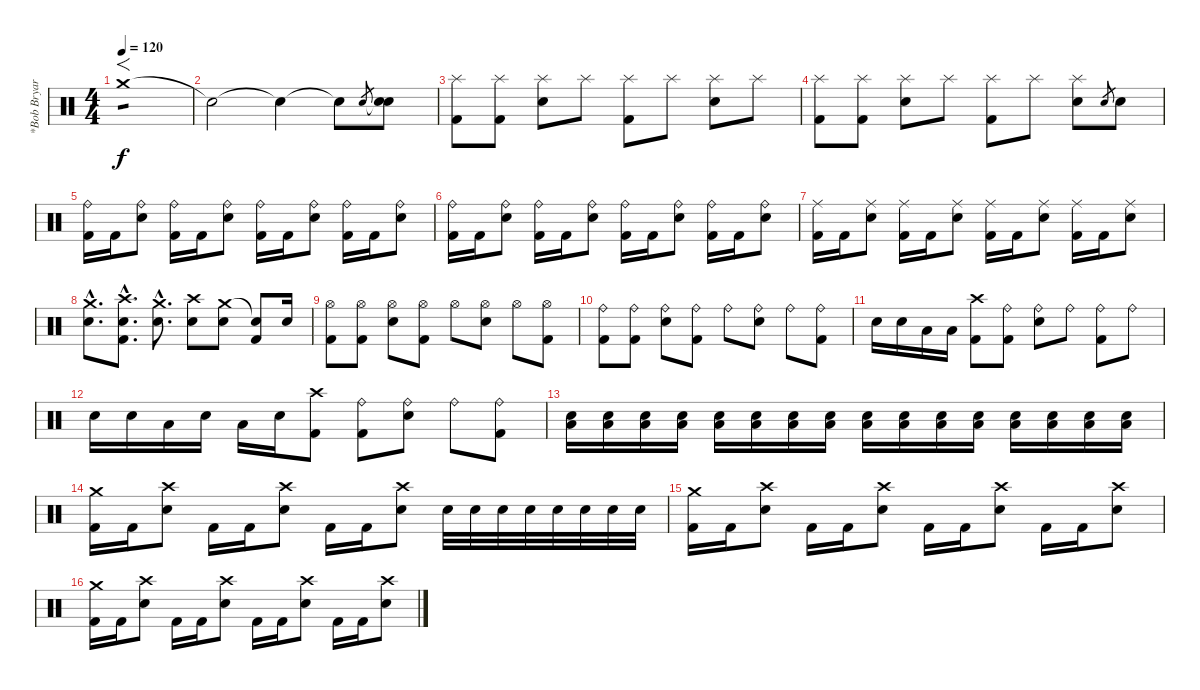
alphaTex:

\track ("*Bob Bryar" "*Bob Bryar") {instrument percussion}
\staff {score}
\articulation defaults
\ts (4 4)
\tempo 120
\clef neutral
\ks c "Crash medium (hit)".1{f tp 1 dy f}
|
"Snare (hit)"{t}.2 "Snare (hit)"{t}.4 "Snare (hit)"{t}.8 "Electric Snare (hit)".8{gr} ("Snare (hit)"{t} "Electric Snare (hit)").8 |
("Splash (hit)" "Kick (hit) 2").8 ("Splash (hit)" "Kick (hit) 2").8 ("Splash (hit)" "Electric Snare (hit)").8 "Splash (hit)".8 ("Splash (hit)" "Kick (hit) 2").8 "Splash (hit)".8 ("Splash (hit)" "Electric Snare (hit)").8 "Splash (hit)".8 |
("Splash (hit)" "Kick (hit) 2").8 ("Splash (hit)" "Kick (hit) 2").8 ("Splash (hit)" "Electric Snare (hit)").8 "Splash (hit)".8 ("Splash (hit)" "Kick (hit) 2").8 "Splash (hit)".8 ("Splash (hit)" "Electric Snare (hit)").8 "Electric Snare (hit)".8{gr} "Electric Snare (hit)".8 |
("Ride (bell)" "Kick (hit) 2").16 "Kick (hit) 2".16 ("Ride (bell)" "Electric Snare (hit)").8 ("Ride (bell)" "Kick (hit) 2").16 "Kick (hit) 2".16 ("Ride (bell)" "Electric Snare (hit)").8 ("Ride (bell)" "Kick (hit) 2").16 "Kick (hit) 2".16 ("Ride (bell)" "Electric Snare (hit)").8 ("Ride (bell)" "Kick (hit) 2").16 "Kick (hit) 2".16 ("Ride (bell)" "Electric Snare (hit)").8 |
("Ride (bell)" "Kick (hit) 2").16 "Kick (hit) 2".16 ("Ride (bell)" "Electric Snare (hit)").8 ("Ride (bell)" "Kick (hit) 2").16 "Kick (hit) 2".16 ("Ride (bell)" "Electric Snare (hit)").8 ("Ride (bell)" "Kick (hit) 2").16 "Kick (hit) 2".16 ("Ride (bell)" "Electric Snare (hit)").8 ("Ride (bell)" "Kick (hit) 2").16 "Kick (hit) 2".16 ("Ride (bell)" "Electric Snare (hit)").8 |
("Ride (middle)" "Kick (hit) 2").16 "Kick (hit) 2".16 ("Ride (middle)" "Electric Snare (hit)").8 ("Ride (middle)" "Kick (hit) 2").16 "Kick (hit) 2".16 ("Ride (middle)" "Electric Snare (hit)").8 ("Ride (middle)" "Kick (hit) 2").16 "Kick (hit) 2".16 ("Ride (middle)" "Electric Snare (hit)").8 ("Ride (middle)" "Kick (hit) 2").16 "Kick (hit) 2".16 ("Ride (middle)" "Electric Snare (hit)").8 |
("Crash medium (hit)"{hac} "Electric Snare (hit)"{hac}).8{d} ("Crash high (hit)"{hac} "Electric Snare (hit)"{hac} "Kick (hit) 2"{hac}).8{d} ("Crash medium (hit)"{hac} "Electric Snare (hit)"{hac}).8{d} ("Crash high (hit)" "Electric Snare (hit)").8 ("Crash medium (hit)" "Electric Snare (hit)").8 ("Snare (hit)"{t} "Kick (hit) 2").8 "Electric Snare (hit)".16 |
("Hi-Hat (open)" "Kick (hit) 2").8 ("Hi-Hat (open)" "Kick (hit) 2").8 ("Hi-Hat (open)" "Electric Snare (hit)").8 ("Hi-Hat (open)" "Kick (hit) 2").8 "Hi-Hat (open)".8 ("Hi-Hat (open)" "Electric Snare (hit)").8 "Hi-Hat (open)".8 ("Hi-Hat (open)" "Kick (hit) 2").8 |
("Ride (bell)" "Kick (hit) 2").8 ("Ride (bell)" "Kick (hit) 2").8 ("Ride (bell)" "Electric Snare (hit)").8 ("Ride (bell)" "Kick (hit) 2").8 "Ride (bell)".8 ("Ride (bell)" "Electric Snare (hit)").8 "Ride (bell)".8 ("Ride (bell)" "Kick (hit) 2").8 |
"Electric Snare (hit)".16 "Electric Snare (hit)".16 "Low Tom (hit)".16 "Low Tom (hit)".16 ("Crash high (hit)" "Kick (hit) 2").8 ("Ride (bell)" "Kick (hit) 2").8 ("Ride (bell)" "Electric Snare (hit)").8 "Ride (bell)".8 ("Ride (bell)" "Kick (hit) 2").8 "Ride (bell)".8 |
"Electric Snare (hit)".16 "Electric Snare (hit)".16 "Low Tom (hit)".16 "Electric Snare (hit)".16 "Low Tom (hit)".16 "Electric Snare (hit)".16 ("Crash high (hit)" "Kick (hit) 2").8 ("Ride (bell)" "Kick (hit) 2").8 ("Ride (bell)" "Electric Snare (hit)").8 "Ride (bell)".8 ("Ride (bell)" "Kick (hit) 2").8 |
("Electric Snare (hit)" "Low Tom (hit)").16{volume 0} ("Electric Snare (hit)" "Low Tom (hit)").16{volume 16} ("Electric Snare (hit)" "Low Tom (hit)").16 ("Electric Snare (hit)" "Low Tom (hit)").16 ("Electric Snare (hit)" "Low Tom (hit)").16 ("Electric Snare (hit)" "Low Tom (hit)").16 ("Electric Snare (hit)" "Low Tom (hit)").16 ("Electric Snare (hit)" "Low Tom (hit)").16 ("Electric Snare (hit)" "Low Tom (hit)").16 ("Electric Snare (hit)" "Low Tom (hit)").16 ("Electric Snare (hit)" "Low Tom (hit)").16 ("Electric Snare (hit)" "Low Tom (hit)").16 ("Electric Snare (hit)" "Low Tom (hit)").16 ("Electric Snare (hit)" "Low Tom (hit)").16 ("Electric Snare (hit)" "Low Tom (hit)").16 ("Electric Snare (hit)" "Low Tom (hit)").16 |
("Crash medium (hit)" "Kick (hit) 2").16 "Kick (hit) 2".16 ("Crash high (hit)" "Electric Snare (hit)").8 "Kick (hit) 2".16 "Kick (hit) 2".16 ("Crash high (hit)" "Electric Snare (hit)").8 "Kick (hit) 2".16 "Kick (hit) 2".16 ("Crash high (hit)" "Electric Snare (hit)").8 "Electric Snare (hit)".32 "Electric Snare (hit)".32 "Electric Snare (hit)".32 "Electric Snare (hit)".32 "Electric Snare (hit)".32 "Electric Snare (hit)".32 "Electric Snare (hit)".32 "Electric Snare (hit)".32 |
("Crash medium (hit)" "Kick (hit) 2").16 "Kick (hit) 2".16 ("Crash high (hit)" "Electric Snare (hit)").8 "Kick (hit) 2".16 "Kick (hit) 2".16 ("Crash high (hit)" "Electric Snare (hit)").8 "Kick (hit) 2".16 "Kick (hit) 2".16 ("Crash high (hit)" "Electric Snare (hit)").8 "Kick (hit) 2".16 "Kick (hit) 2".16 ("Crash high (hit)" "Electric Snare (hit)").8 |
("Crash medium (hit)" "Kick (hit) 2").16 "Kick (hit) 2".16 ("Crash high (hit)" "Electric Snare (hit)").8 "Kick (hit) 2".16 "Kick (hit) 2".16 ("Crash high (hit)" "Electric Snare (hit)").8 "Kick (hit) 2".16 "Kick (hit) 2".16 ("Crash high (hit)" "Electric Snare (hit)").8 "Kick (hit) 2".16 "Kick (hit) 2".16 ("Crash high (hit)" "Electric Snare (hit)").8
